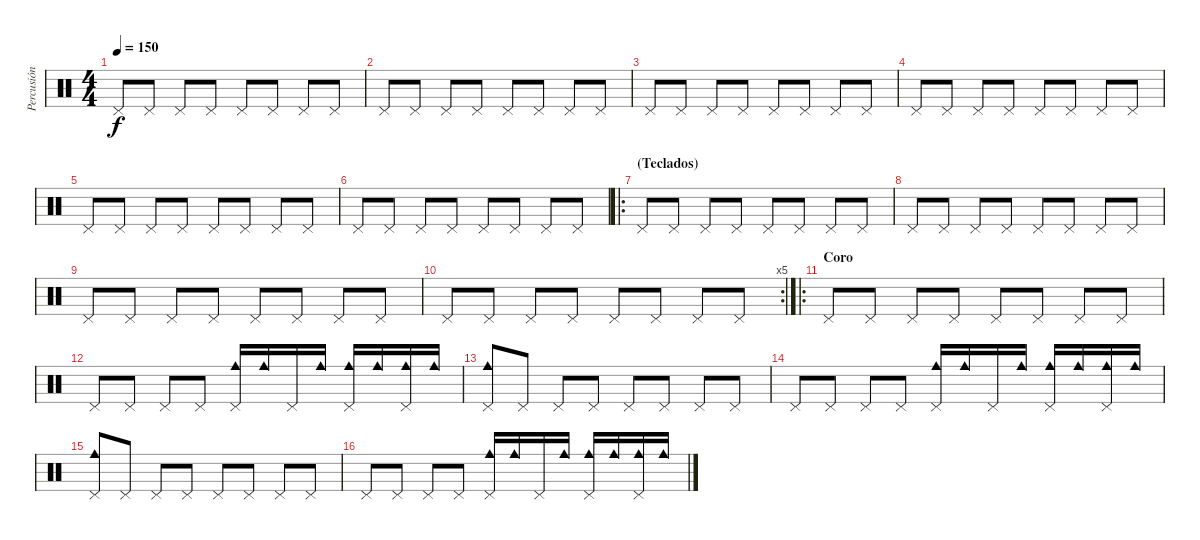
\track ("Percusión" "Percusión") {instrument percussion}
\staff {score}
\articulation defaults
\ts (4 4)
\tempo 150
\clef neutral
\ks c "Pedal Hi-Hat (hit)".8{dy f} "Pedal Hi-Hat (hit)".8 "Pedal Hi-Hat (hit)".8 "Pedal Hi-Hat (hit)".8 "Pedal Hi-Hat (hit)".8 "Pedal Hi-Hat (hit)".8 "Pedal Hi-Hat (hit)".8 "Pedal Hi-Hat (hit)".8
|
"Pedal Hi-Hat (hit)".8 "Pedal Hi-Hat (hit)".8 "Pedal Hi-Hat (hit)".8 "Pedal Hi-Hat (hit)".8 "Pedal Hi-Hat (hit)".8 "Pedal Hi-Hat (hit)".8 "Pedal Hi-Hat (hit)".8 "Pedal Hi-Hat (hit)".8 |
"Pedal Hi-Hat (hit)".8 "Pedal Hi-Hat (hit)".8 "Pedal Hi-Hat (hit)".8 "Pedal Hi-Hat (hit)".8 "Pedal Hi-Hat (hit)".8 "Pedal Hi-Hat (hit)".8 "Pedal Hi-Hat (hit)".8 "Pedal Hi-Hat (hit)".8 |
"Pedal Hi-Hat (hit)".8 "Pedal Hi-Hat (hit)".8 "Pedal Hi-Hat (hit)".8 "Pedal Hi-Hat (hit)".8 "Pedal Hi-Hat (hit)".8 "Pedal Hi-Hat (hit)".8 "Pedal Hi-Hat (hit)".8 "Pedal Hi-Hat (hit)".8 |
"Pedal Hi-Hat (hit)".8 "Pedal Hi-Hat (hit)".8 "Pedal Hi-Hat (hit)".8 "Pedal Hi-Hat (hit)".8 "Pedal Hi-Hat (hit)".8 "Pedal Hi-Hat (hit)".8 "Pedal Hi-Hat (hit)".8 "Pedal Hi-Hat (hit)".8 |
"Pedal Hi-Hat (hit)".8 "Pedal Hi-Hat (hit)".8 "Pedal Hi-Hat (hit)".8 "Pedal Hi-Hat (hit)".8 "Pedal Hi-Hat (hit)".8 "Pedal Hi-Hat (hit)".8 "Pedal Hi-Hat (hit)".8 "Pedal Hi-Hat (hit)".8 |
\ro
\section ("" "(Teclados)")
"Pedal Hi-Hat (hit)".8 "Pedal Hi-Hat (hit)".8 "Pedal Hi-Hat (hit)".8 "Pedal Hi-Hat (hit)".8 "Pedal Hi-Hat (hit)".8 "Pedal Hi-Hat (hit)".8 "Pedal Hi-Hat (hit)".8 "Pedal Hi-Hat (hit)".8 |
"Pedal Hi-Hat (hit)".8 "Pedal Hi-Hat (hit)".8 "Pedal Hi-Hat (hit)".8 "Pedal Hi-Hat (hit)".8 "Pedal Hi-Hat (hit)".8 "Pedal Hi-Hat (hit)".8 "Pedal Hi-Hat (hit)".8 "Pedal Hi-Hat (hit)".8 |
"Pedal Hi-Hat (hit)".8 "Pedal Hi-Hat (hit)".8 "Pedal Hi-Hat (hit)".8 "Pedal Hi-Hat (hit)".8 "Pedal Hi-Hat (hit)".8 "Pedal Hi-Hat (hit)".8 "Pedal Hi-Hat (hit)".8 "Pedal Hi-Hat (hit)".8 |
\rc 5 "Pedal Hi-Hat (hit)".8 "Pedal Hi-Hat (hit)".8 "Pedal Hi-Hat (hit)".8 "Pedal Hi-Hat (hit)".8 "Pedal Hi-Hat (hit)".8 "Pedal Hi-Hat (hit)".8 "Pedal Hi-Hat (hit)".8 "Pedal Hi-Hat (hit)".8
|
\ro
\section ("" "Coro")
"Pedal Hi-Hat (hit)".8 "Pedal Hi-Hat (hit)".8 "Pedal Hi-Hat (hit)".8 "Pedal Hi-Hat (hit)".8 "Pedal Hi-Hat (hit)".8 "Pedal Hi-Hat (hit)".8 "Pedal Hi-Hat (hit)".8 "Pedal Hi-Hat (hit)".8 |
"Pedal Hi-Hat (hit)".8 "Pedal Hi-Hat (hit)".8 "Pedal Hi-Hat (hit)".8 "Pedal Hi-Hat (hit)".8 ("Pedal Hi-Hat (hit)" "Cowbell medium (hit)").16 "Cowbell medium (hit)".16 "Pedal Hi-Hat (hit)".16 "Cowbell medium (hit)".16 ("Pedal Hi-Hat (hit)" "Cowbell medium (hit)").16 "Cowbell medium (hit)".16 ("Pedal Hi-Hat (hit)" "Cowbell medium (hit)").16 "Cowbell medium (hit)".16 |
("Pedal Hi-Hat (hit)" "Cowbell medium (hit)").8 "Pedal Hi-Hat (hit)".8 "Pedal Hi-Hat (hit)".8 "Pedal Hi-Hat (hit)".8 "Pedal Hi-Hat (hit)".8 "Pedal Hi-Hat (hit)".8 "Pedal Hi-Hat (hit)".8 "Pedal Hi-Hat (hit)".8 |
"Pedal Hi-Hat (hit)".8 "Pedal Hi-Hat (hit)".8 "Pedal Hi-Hat (hit)".8 "Pedal Hi-Hat (hit)".8 ("Pedal Hi-Hat (hit)" "Cowbell medium (hit)").16 "Cowbell medium (hit)".16 "Pedal Hi-Hat (hit)".16 "Cowbell medium (hit)".16 ("Pedal Hi-Hat (hit)" "Cowbell medium (hit)").16 "Cowbell medium (hit)".16 ("Pedal Hi-Hat (hit)" "Cowbell medium (hit)").16 "Cowbell medium (hit)".16 |
("Pedal Hi-Hat (hit)" "Cowbell medium (hit)").8 "Pedal Hi-Hat (hit)".8 "Pedal Hi-Hat (hit)".8 "Pedal Hi-Hat (hit)".8 "Pedal Hi-Hat (hit)".8 "Pedal Hi-Hat (hit)".8 "Pedal Hi-Hat (hit)".8 "Pedal Hi-Hat (hit)".8 |
"Pedal Hi-Hat (hit)".8 "Pedal Hi-Hat (hit)".8 "Pedal Hi-Hat (hit)".8 "Pedal Hi-Hat (hit)".8 ("Pedal Hi-Hat (hit)" "Cowbell medium (hit)").16 "Cowbell medium (hit)".16 "Pedal Hi-Hat (hit)".16 "Cowbell medium (hit)".16 ("Pedal Hi-Hat (hit)" "Cowbell medium (hit)").16 "Cowbell medium (hit)".16 ("Pedal Hi-Hat (hit)" "Cowbell medium (hit)").16 "Cowbell medium (hit)".16
